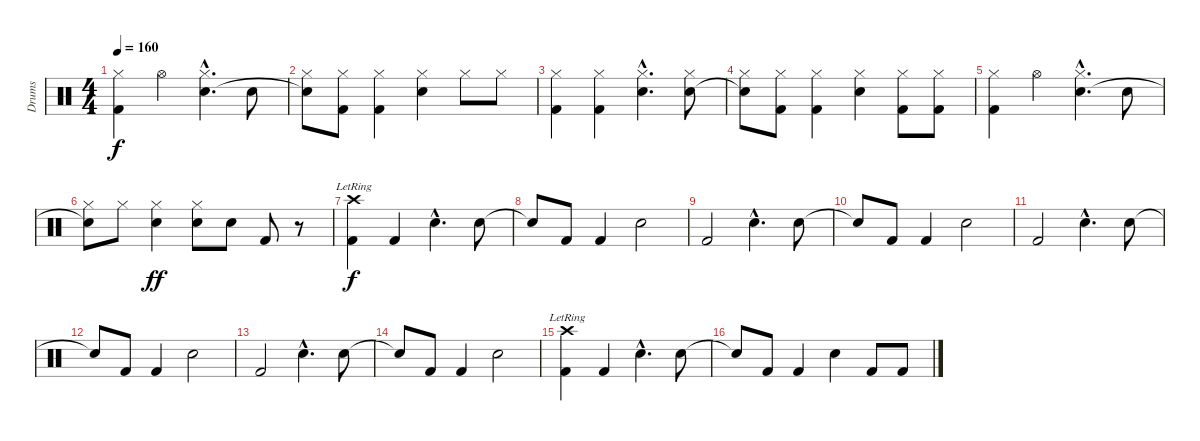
\track ("Drums" "Drums") {instrument percussion}
\staff {score}
\articulation defaults
\ts (4 4)
\tempo 160
\clef neutral
\ks c
("Hi-Hat (closed)" "Kick (hit) 2").4{dy f} "Hi-Hat (open)".4 ("Hi-Hat (closed)"{hac} "Snare (hit) 2"{hac}).4{d} "Snare (hit) 2".8 |
("Hi-Hat (closed)" "Snare (hit) 2"{t}).8 ("Hi-Hat (closed)" "Kick (hit) 2").8 ("Hi-Hat (closed)" "Kick (hit) 2").4 ("Hi-Hat (closed)" "Snare (hit) 2").4 "Hi-Hat (closed)".8 "Hi-Hat (closed)".8 |
("Hi-Hat (closed)" "Kick (hit) 2").4 ("Hi-Hat (closed)" "Kick (hit) 2").4 ("Hi-Hat (closed)"{hac} "Snare (hit) 2"{hac}).4{d} ("Hi-Hat (closed)" "Snare (hit) 2").8 |
("Hi-Hat (closed)" "Snare (hit) 2"{t}).8 ("Hi-Hat (closed)" "Kick (hit) 2").8 ("Hi-Hat (closed)" "Kick (hit) 2").4 ("Hi-Hat (closed)" "Snare (hit) 2").4 ("Hi-Hat (closed)" "Kick (hit) 2").8 ("Hi-Hat (closed)" "Kick (hit) 2").8 |
("Hi-Hat (closed)" "Kick (hit) 2").4 "Hi-Hat (open)".4 ("Hi-Hat (closed)"{hac} "Snare (hit) 2"{hac}).4{d} "Snare (hit) 2".8 |
("Hi-Hat (closed)" "Snare (hit) 2"{t}).8 "Hi-Hat (closed)".8 ("Hi-Hat (closed)" "Electric Snare (hit)").4{dy ff} ("Hi-Hat (closed)" "Electric Snare (hit)").8 "Snare (hit) 2".8 "Kick (hit) 2".8 r.8 |
("Crash high (hit)"{lr} "Kick (hit) 2").4{dy f} "Kick (hit) 2".4 "Snare (hit) 2"{hac}.4{d} "Snare (hit) 2".8 |
"Snare (hit) 2"{t}.8 "Kick (hit) 2".8 "Kick (hit) 2".4 "Snare (hit) 2".2 |
"Kick (hit) 2".2 "Snare (hit) 2"{hac}.4{d} "Snare (hit) 2".8 |
"Snare (hit) 2"{t}.8 "Kick (hit) 2".8 "Kick (hit) 2".4 "Snare (hit) 2".2 |
"Kick (hit) 2".2 "Snare (hit) 2"{hac}.4{d} "Snare (hit) 2".8 |
"Snare (hit) 2"{t}.8 "Kick (hit) 2".8 "Kick (hit) 2".4 "Snare (hit) 2".2 |
"Kick (hit) 2".2 "Snare (hit) 2"{hac}.4{d} "Snare (hit) 2".8 |
"Snare (hit) 2"{t}.8 "Kick (hit) 2".8 "Kick (hit) 2".4 "Snare (hit) 2".2 |
("Crash high (hit)"{lr} "Kick (hit) 2").4 "Kick (hit) 2".4 "Snare (hit) 2"{hac}.4{d} "Snare (hit) 2".8 |
"Snare (hit) 2"{t}.8 "Kick (hit) 2".8 "Kick (hit) 2".4 "Snare (hit) 2".4 "Kick (hit) 2".8 "Kick (hit) 2".8
